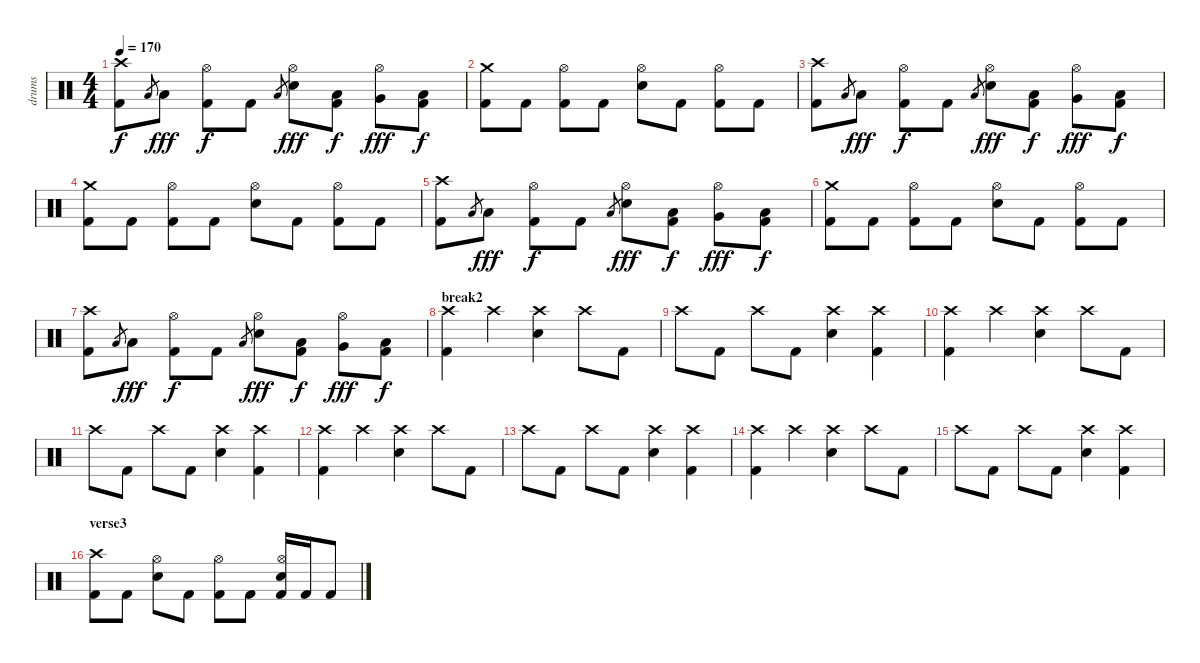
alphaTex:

\track ("drums" "drums") {instrument percussion}
\staff {score}
\articulation defaults
\ts (4 4)
\tempo 170
\clef neutral
\ks c
("Crash high (hit)" "Kick (hit) 2").8{dy f} "Low Tom (hit)".8{gr} "Low Tom (hit)".8{dy fff} ("Hi-Hat (open)" "Kick (hit) 2").8{dy f} "Kick (hit) 2".8 "Low Tom (hit)".8{gr} ("Hi-Hat (open)" "Electric Snare (hit)").8{dy fff} ("Low Tom (hit)" "Kick (hit) 2").8{dy f} ("Hi-Hat (open)" "Very Low Tom (hit)").8{dy fff} ("Low Floor Tom (hit)" "Kick (hit) 2").8{dy f} |
("Crash medium (hit)" "Kick (hit) 2").8 "Kick (hit) 2".8 ("Hi-Hat (open)" "Kick (hit) 2").8 "Kick (hit) 2".8 ("Hi-Hat (open)" "Electric Snare (hit)").8 "Kick (hit) 2".8 ("Hi-Hat (open)" "Kick (hit) 2").8 "Kick (hit) 2".8 |
("Crash high (hit)" "Kick (hit) 2").8 "Low Tom (hit)".8{gr} "Low Tom (hit)".8{dy fff} ("Hi-Hat (open)" "Kick (hit) 2").8{dy f} "Kick (hit) 2".8 "Low Tom (hit)".8{gr} ("Hi-Hat (open)" "Electric Snare (hit)").8{dy fff} ("Low Tom (hit)" "Kick (hit) 2").8{dy f} ("Hi-Hat (open)" "Very Low Tom (hit)").8{dy fff} ("Low Floor Tom (hit)" "Kick (hit) 2").8{dy f} |
("Crash medium (hit)" "Kick (hit) 2").8 "Kick (hit) 2".8 ("Hi-Hat (open)" "Kick (hit) 2").8 "Kick (hit) 2".8 ("Hi-Hat (open)" "Electric Snare (hit)").8 "Kick (hit) 2".8 ("Hi-Hat (open)" "Kick (hit) 2").8 "Kick (hit) 2".8 |
("Crash high (hit)" "Kick (hit) 2").8 "Low Tom (hit)".8{gr} "Low Tom (hit)".8{dy fff} ("Hi-Hat (open)" "Kick (hit) 2").8{dy f} "Kick (hit) 2".8 "Low Tom (hit)".8{gr} ("Hi-Hat (open)" "Electric Snare (hit)").8{dy fff} ("Low Tom (hit)" "Kick (hit) 2").8{dy f} ("Hi-Hat (open)" "Very Low Tom (hit)").8{dy fff} ("Low Floor Tom (hit)" "Kick (hit) 2").8{dy f} |
("Crash medium (hit)" "Kick (hit) 2").8 "Kick (hit) 2".8 ("Hi-Hat (open)" "Kick (hit) 2").8 "Kick (hit) 2".8 ("Hi-Hat (open)" "Electric Snare (hit)").8 "Kick (hit) 2".8 ("Hi-Hat (open)" "Kick (hit) 2").8 "Kick (hit) 2".8 |
("Crash high (hit)" "Kick (hit) 2").8 "Low Tom (hit)".8{gr} "Low Tom (hit)".8{dy fff} ("Hi-Hat (open)" "Kick (hit) 2").8{dy f} "Kick (hit) 2".8 "Low Tom (hit)".8{gr} ("Hi-Hat (open)" "Electric Snare (hit)").8{dy fff} ("Low Tom (hit)" "Kick (hit) 2").8{dy f} ("Hi-Hat (open)" "Very Low Tom (hit)").8{dy fff} ("Low Floor Tom (hit)" "Kick (hit) 2").8{dy f} |
\section ("" "break2")
("Crash high (hit)" "Kick (hit) 2").4 "Crash high (hit)".4 ("Crash high (hit)" "Electric Snare (hit)").4 "Crash high (hit)".8 "Kick (hit) 2".8 |
"Crash high (hit)".8 "Kick (hit) 2".8 "Crash high (hit)".8 "Kick (hit) 2".8 ("Crash high (hit)" "Electric Snare (hit)").4 ("Crash high (hit)" "Kick (hit) 2").4 |
("Crash high (hit)" "Kick (hit) 2").4 "Crash high (hit)".4 ("Crash high (hit)" "Electric Snare (hit)").4 "Crash high (hit)".8 "Kick (hit) 2".8 |
"Crash high (hit)".8 "Kick (hit) 2".8 "Crash high (hit)".8 "Kick (hit) 2".8 ("Crash high (hit)" "Electric Snare (hit)").4 ("Crash high (hit)" "Kick (hit) 2").4 |
("Crash high (hit)" "Kick (hit) 2").4 "Crash high (hit)".4 ("Crash high (hit)" "Electric Snare (hit)").4 "Crash high (hit)".8 "Kick (hit) 2".8 |
"Crash high (hit)".8 "Kick (hit) 2".8 "Crash high (hit)".8 "Kick (hit) 2".8 ("Crash high (hit)" "Electric Snare (hit)").4 ("Crash high (hit)" "Kick (hit) 2").4 |
("Crash high (hit)" "Kick (hit) 2").4 "Crash high (hit)".4 ("Crash high (hit)" "Electric Snare (hit)").4 "Crash high (hit)".8 "Kick (hit) 2".8 |
"Crash high (hit)".8 "Kick (hit) 2".8 "Crash high (hit)".8 "Kick (hit) 2".8 ("Crash high (hit)" "Electric Snare (hit)").4 ("Crash high (hit)" "Kick (hit) 2").4 |
\section ("" "verse3")
("Crash high (hit)" "Kick (hit) 2").8 "Kick (hit) 2".8 ("Hi-Hat (open)" "Electric Snare (hit)").8 "Kick (hit) 2".8 ("Hi-Hat (open)" "Kick (hit) 2").8 "Kick (hit) 2".8 ("Hi-Hat (open)" "Electric Snare (hit)" "Kick (hit) 2").16 "Kick (hit) 2".16 "Kick (hit) 2".8
